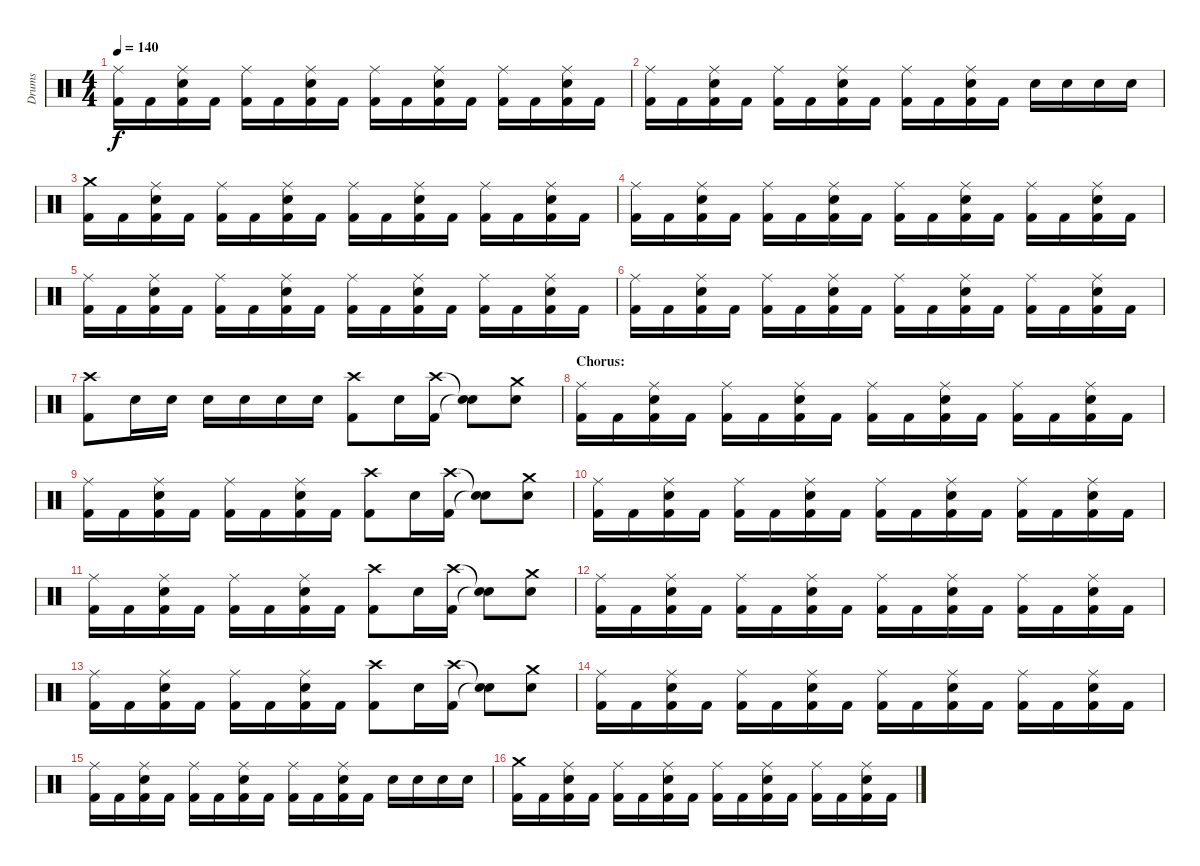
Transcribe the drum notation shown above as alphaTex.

\track ("Drums" "Drums") {instrument percussion}
\staff {score}
\articulation defaults
\ts (4 4)
\tempo 140
\clef neutral
\ks c
("Ride (middle)" "Kick (hit) 2").16{dy f} "Kick (hit) 2".16 ("Ride (middle)" "Snare (hit) 2" "Kick (hit) 2").16 "Kick (hit) 2".16 ("Ride (middle)" "Kick (hit) 2").16 "Kick (hit) 2".16 ("Ride (middle)" "Snare (hit) 2" "Kick (hit) 2").16 "Kick (hit) 2".16 ("Ride (middle)" "Kick (hit) 2").16 "Kick (hit) 2".16 ("Ride (middle)" "Snare (hit) 2" "Kick (hit) 2").16 "Kick (hit) 2".16 ("Ride (middle)" "Kick (hit) 2").16 "Kick (hit) 2".16 ("Ride (middle)" "Snare (hit) 2" "Kick (hit) 2").16 "Kick (hit) 2".16 |
("Ride (middle)" "Kick (hit) 2").16 "Kick (hit) 2".16 ("Ride (middle)" "Snare (hit) 2" "Kick (hit) 2").16 "Kick (hit) 2".16 ("Ride (middle)" "Kick (hit) 2").16 "Kick (hit) 2".16 ("Ride (middle)" "Snare (hit) 2" "Kick (hit) 2").16 "Kick (hit) 2".16 ("Ride (middle)" "Kick (hit) 2").16 "Kick (hit) 2".16 ("Ride (middle)" "Snare (hit) 2" "Kick (hit) 2").16 "Kick (hit) 2".16 "Snare (hit) 2".16 "Snare (hit) 2".16 "Snare (hit) 2".16 "Snare (hit) 2".16 |
("Crash medium (hit)" "Kick (hit) 2").16 "Kick (hit) 2".16 ("Ride (middle)" "Snare (hit) 2" "Kick (hit) 2").16 "Kick (hit) 2".16 ("Ride (middle)" "Kick (hit) 2").16 "Kick (hit) 2".16 ("Ride (middle)" "Snare (hit) 2" "Kick (hit) 2").16 "Kick (hit) 2".16 ("Ride (middle)" "Kick (hit) 2").16 "Kick (hit) 2".16 ("Ride (middle)" "Snare (hit) 2" "Kick (hit) 2").16 "Kick (hit) 2".16 ("Ride (middle)" "Kick (hit) 2").16 "Kick (hit) 2".16 ("Ride (middle)" "Snare (hit) 2" "Kick (hit) 2").16 "Kick (hit) 2".16 |
("Ride (middle)" "Kick (hit) 2").16 "Kick (hit) 2".16 ("Ride (middle)" "Snare (hit) 2" "Kick (hit) 2").16 "Kick (hit) 2".16 ("Ride (middle)" "Kick (hit) 2").16 "Kick (hit) 2".16 ("Ride (middle)" "Snare (hit) 2" "Kick (hit) 2").16 "Kick (hit) 2".16 ("Ride (middle)" "Kick (hit) 2").16 "Kick (hit) 2".16 ("Ride (middle)" "Snare (hit) 2" "Kick (hit) 2").16 "Kick (hit) 2".16 ("Ride (middle)" "Kick (hit) 2").16 "Kick (hit) 2".16 ("Ride (middle)" "Snare (hit) 2" "Kick (hit) 2").16 "Kick (hit) 2".16 |
("Ride (middle)" "Kick (hit) 2").16 "Kick (hit) 2".16 ("Ride (middle)" "Snare (hit) 2" "Kick (hit) 2").16 "Kick (hit) 2".16 ("Ride (middle)" "Kick (hit) 2").16 "Kick (hit) 2".16 ("Ride (middle)" "Snare (hit) 2" "Kick (hit) 2").16 "Kick (hit) 2".16 ("Ride (middle)" "Kick (hit) 2").16 "Kick (hit) 2".16 ("Ride (middle)" "Snare (hit) 2" "Kick (hit) 2").16 "Kick (hit) 2".16 ("Ride (middle)" "Kick (hit) 2").16 "Kick (hit) 2".16 ("Ride (middle)" "Snare (hit) 2" "Kick (hit) 2").16 "Kick (hit) 2".16 |
("Ride (middle)" "Kick (hit) 2").16 "Kick (hit) 2".16 ("Ride (middle)" "Snare (hit) 2" "Kick (hit) 2").16 "Kick (hit) 2".16 ("Ride (middle)" "Kick (hit) 2").16 "Kick (hit) 2".16 ("Ride (middle)" "Snare (hit) 2" "Kick (hit) 2").16 "Kick (hit) 2".16 ("Ride (middle)" "Kick (hit) 2").16 "Kick (hit) 2".16 ("Ride (middle)" "Snare (hit) 2" "Kick (hit) 2").16 "Kick (hit) 2".16 ("Ride (middle)" "Kick (hit) 2").16 "Kick (hit) 2".16 ("Ride (middle)" "Snare (hit) 2" "Kick (hit) 2").16 "Kick (hit) 2".16 |
("Crash high (hit)" "Kick (hit) 2").8 "Snare (hit) 2".16 "Snare (hit) 2".16 "Snare (hit) 2".16 "Snare (hit) 2".16 "Snare (hit) 2".16 "Snare (hit) 2".16 ("Crash high (hit)" "Kick (hit) 2").8 "Snare (hit) 2".16 ("Crash high (hit)" "Kick (hit) 2").16 ("Snare (hit)"{t} "Snare (hit)"{t}).8 ("Crash medium (hit)" "Snare (hit) 2").8 |
\section ("" "Chorus:")
("Ride (middle)" "Kick (hit) 2").16 "Kick (hit) 2".16 ("Ride (middle)" "Snare (hit) 2" "Kick (hit) 2").16 "Kick (hit) 2".16 ("Ride (middle)" "Kick (hit) 2").16 "Kick (hit) 2".16 ("Ride (middle)" "Snare (hit) 2" "Kick (hit) 2").16 "Kick (hit) 2".16 ("Ride (middle)" "Kick (hit) 2").16 "Kick (hit) 2".16 ("Ride (middle)" "Snare (hit) 2" "Kick (hit) 2").16 "Kick (hit) 2".16 ("Ride (middle)" "Kick (hit) 2").16 "Kick (hit) 2".16 ("Ride (middle)" "Snare (hit) 2" "Kick (hit) 2").16 "Kick (hit) 2".16 |
("Ride (middle)" "Kick (hit) 2").16 "Kick (hit) 2".16 ("Ride (middle)" "Snare (hit) 2" "Kick (hit) 2").16 "Kick (hit) 2".16 ("Ride (middle)" "Kick (hit) 2").16 "Kick (hit) 2".16 ("Ride (middle)" "Snare (hit) 2" "Kick (hit) 2").16 "Kick (hit) 2".16 ("Crash high (hit)" "Kick (hit) 2").8 "Snare (hit) 2".16 ("Crash high (hit)" "Kick (hit) 2").16 ("Snare (hit)"{t} "Snare (hit)"{t}).8 ("Crash medium (hit)" "Snare (hit) 2").8 |
("Ride (middle)" "Kick (hit) 2").16 "Kick (hit) 2".16 ("Ride (middle)" "Snare (hit) 2" "Kick (hit) 2").16 "Kick (hit) 2".16 ("Ride (middle)" "Kick (hit) 2").16 "Kick (hit) 2".16 ("Ride (middle)" "Snare (hit) 2" "Kick (hit) 2").16 "Kick (hit) 2".16 ("Ride (middle)" "Kick (hit) 2").16 "Kick (hit) 2".16 ("Ride (middle)" "Snare (hit) 2" "Kick (hit) 2").16 "Kick (hit) 2".16 ("Ride (middle)" "Kick (hit) 2").16 "Kick (hit) 2".16 ("Ride (middle)" "Snare (hit) 2" "Kick (hit) 2").16 "Kick (hit) 2".16 |
("Ride (middle)" "Kick (hit) 2").16 "Kick (hit) 2".16 ("Ride (middle)" "Snare (hit) 2" "Kick (hit) 2").16 "Kick (hit) 2".16 ("Ride (middle)" "Kick (hit) 2").16 "Kick (hit) 2".16 ("Ride (middle)" "Snare (hit) 2" "Kick (hit) 2").16 "Kick (hit) 2".16 ("Crash high (hit)" "Kick (hit) 2").8 "Snare (hit) 2".16 ("Crash high (hit)" "Kick (hit) 2").16 ("Snare (hit)"{t} "Snare (hit)"{t}).8 ("Crash medium (hit)" "Snare (hit) 2").8 |
("Ride (middle)" "Kick (hit) 2").16 "Kick (hit) 2".16 ("Ride (middle)" "Snare (hit) 2" "Kick (hit) 2").16 "Kick (hit) 2".16 ("Ride (middle)" "Kick (hit) 2").16 "Kick (hit) 2".16 ("Ride (middle)" "Snare (hit) 2" "Kick (hit) 2").16 "Kick (hit) 2".16 ("Ride (middle)" "Kick (hit) 2").16 "Kick (hit) 2".16 ("Ride (middle)" "Snare (hit) 2" "Kick (hit) 2").16 "Kick (hit) 2".16 ("Ride (middle)" "Kick (hit) 2").16 "Kick (hit) 2".16 ("Ride (middle)" "Snare (hit) 2" "Kick (hit) 2").16 "Kick (hit) 2".16 |
("Ride (middle)" "Kick (hit) 2").16 "Kick (hit) 2".16 ("Ride (middle)" "Snare (hit) 2" "Kick (hit) 2").16 "Kick (hit) 2".16 ("Ride (middle)" "Kick (hit) 2").16 "Kick (hit) 2".16 ("Ride (middle)" "Snare (hit) 2" "Kick (hit) 2").16 "Kick (hit) 2".16 ("Crash high (hit)" "Kick (hit) 2").8 "Snare (hit) 2".16 ("Crash high (hit)" "Kick (hit) 2").16 ("Snare (hit)"{t} "Snare (hit)"{t}).8 ("Crash medium (hit)" "Snare (hit) 2").8 |
("Ride (middle)" "Kick (hit) 2").16 "Kick (hit) 2".16 ("Ride (middle)" "Snare (hit) 2" "Kick (hit) 2").16 "Kick (hit) 2".16 ("Ride (middle)" "Kick (hit) 2").16 "Kick (hit) 2".16 ("Ride (middle)" "Snare (hit) 2" "Kick (hit) 2").16 "Kick (hit) 2".16 ("Ride (middle)" "Kick (hit) 2").16 "Kick (hit) 2".16 ("Ride (middle)" "Snare (hit) 2" "Kick (hit) 2").16 "Kick (hit) 2".16 ("Ride (middle)" "Kick (hit) 2").16 "Kick (hit) 2".16 ("Ride (middle)" "Snare (hit) 2" "Kick (hit) 2").16 "Kick (hit) 2".16 |
("Ride (middle)" "Kick (hit) 2").16 "Kick (hit) 2".16 ("Ride (middle)" "Snare (hit) 2" "Kick (hit) 2").16 "Kick (hit) 2".16 ("Ride (middle)" "Kick (hit) 2").16 "Kick (hit) 2".16 ("Ride (middle)" "Snare (hit) 2" "Kick (hit) 2").16 "Kick (hit) 2".16 ("Ride (middle)" "Kick (hit) 2").16 "Kick (hit) 2".16 ("Ride (middle)" "Snare (hit) 2" "Kick (hit) 2").16 "Kick (hit) 2".16 "Snare (hit) 2".16 "Snare (hit) 2".16 "Snare (hit) 2".16 "Snare (hit) 2".16 |
("Crash medium (hit)" "Kick (hit) 2").16 "Kick (hit) 2".16 ("Ride (middle)" "Snare (hit) 2" "Kick (hit) 2").16 "Kick (hit) 2".16 ("Ride (middle)" "Kick (hit) 2").16 "Kick (hit) 2".16 ("Ride (middle)" "Snare (hit) 2" "Kick (hit) 2").16 "Kick (hit) 2".16 ("Ride (middle)" "Kick (hit) 2").16 "Kick (hit) 2".16 ("Ride (middle)" "Snare (hit) 2" "Kick (hit) 2").16 "Kick (hit) 2".16 ("Ride (middle)" "Kick (hit) 2").16 "Kick (hit) 2".16 ("Ride (middle)" "Snare (hit) 2" "Kick (hit) 2").16 "Kick (hit) 2".16
